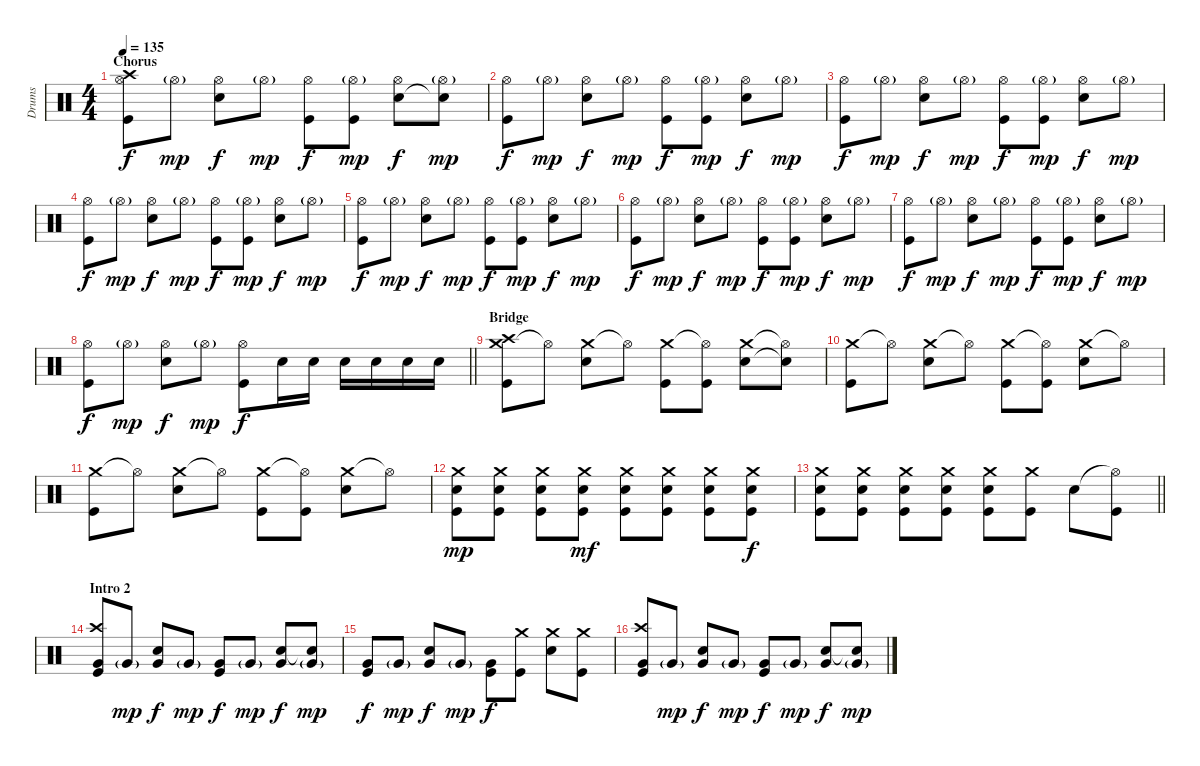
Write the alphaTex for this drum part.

\track ("Drums" "Drums") {instrument percussion}
\staff {score}
\articulation defaults
\ts (4 4)
\section ("" "Chorus")
\tempo 135
\clef neutral
\ks c
("Hi-Hat (open)" "Kick (hit)" "Crash high (hit)").8{dy f} "Hi-Hat (open)"{g}.8{dy mp} ("Hi-Hat (open)" "Electric Snare (hit)").8{dy f} "Hi-Hat (open)"{g}.8{dy mp} ("Hi-Hat (open)" "Kick (hit)").8{dy f} ("Hi-Hat (open)"{g} "Kick (hit)").8{dy mp} ("Hi-Hat (open)" "Electric Snare (hit)").8{dy f} ("Hi-Hat (open)"{g} "Snare (hit)"{t}).8{dy mp} |
("Hi-Hat (open)" "Kick (hit)").8{dy f} "Hi-Hat (open)"{g}.8{dy mp} ("Hi-Hat (open)" "Electric Snare (hit)").8{dy f} "Hi-Hat (open)"{g}.8{dy mp} ("Hi-Hat (open)" "Kick (hit)").8{dy f} ("Hi-Hat (open)"{g} "Kick (hit)").8{dy mp} ("Hi-Hat (open)" "Electric Snare (hit)").8{dy f} "Hi-Hat (open)"{g}.8{dy mp} |
("Hi-Hat (open)" "Kick (hit)").8{dy f} "Hi-Hat (open)"{g}.8{dy mp} ("Hi-Hat (open)" "Electric Snare (hit)").8{dy f} "Hi-Hat (open)"{g}.8{dy mp} ("Hi-Hat (open)" "Kick (hit)").8{dy f} ("Hi-Hat (open)"{g} "Kick (hit)").8{dy mp} ("Hi-Hat (open)" "Electric Snare (hit)").8{dy f} "Hi-Hat (open)"{g}.8{dy mp} |
("Hi-Hat (open)" "Kick (hit)").8{dy f} "Hi-Hat (open)"{g}.8{dy mp} ("Hi-Hat (open)" "Electric Snare (hit)").8{dy f} "Hi-Hat (open)"{g}.8{dy mp} ("Hi-Hat (open)" "Kick (hit)").8{dy f} ("Hi-Hat (open)"{g} "Kick (hit)").8{dy mp} ("Hi-Hat (open)" "Electric Snare (hit)").8{dy f} "Hi-Hat (open)"{g}.8{dy mp} |
("Hi-Hat (open)" "Kick (hit)").8{dy f} "Hi-Hat (open)"{g}.8{dy mp} ("Hi-Hat (open)" "Electric Snare (hit)").8{dy f} "Hi-Hat (open)"{g}.8{dy mp} ("Hi-Hat (open)" "Kick (hit)").8{dy f} ("Hi-Hat (open)"{g} "Kick (hit)").8{dy mp} ("Hi-Hat (open)" "Electric Snare (hit)").8{dy f} "Hi-Hat (open)"{g}.8{dy mp} |
("Hi-Hat (open)" "Kick (hit)").8{dy f} "Hi-Hat (open)"{g}.8{dy mp} ("Hi-Hat (open)" "Electric Snare (hit)").8{dy f} "Hi-Hat (open)"{g}.8{dy mp} ("Hi-Hat (open)" "Kick (hit)").8{dy f} ("Hi-Hat (open)"{g} "Kick (hit)").8{dy mp} ("Hi-Hat (open)" "Electric Snare (hit)").8{dy f} "Hi-Hat (open)"{g}.8{dy mp} |
("Hi-Hat (open)" "Kick (hit)").8{dy f} "Hi-Hat (open)"{g}.8{dy mp} ("Hi-Hat (open)" "Electric Snare (hit)").8{dy f} "Hi-Hat (open)"{g}.8{dy mp} ("Hi-Hat (open)" "Kick (hit)").8{dy f} ("Hi-Hat (open)"{g} "Kick (hit)").8{dy mp} ("Hi-Hat (open)" "Electric Snare (hit)").8{dy f} "Hi-Hat (open)"{g}.8{dy mp} |
\barLineRight lightlight
("Hi-Hat (open)" "Kick (hit)").8{dy f} "Hi-Hat (open)"{g}.8{dy mp} ("Hi-Hat (open)" "Electric Snare (hit)").8{dy f} "Hi-Hat (open)"{g}.8{dy mp} ("Hi-Hat (open)" "Kick (hit)").8{dy f} "Electric Snare (hit)".16 "Electric Snare (hit)".16 "Electric Snare (hit)".16 "Electric Snare (hit)".16 "Electric Snare (hit)".16 "Electric Snare (hit)".16 |
\section ("" "Bridge")
("Crash medium (hit)" "Kick (hit)" "Crash high (hit)").8 "Hi-Hat (open)"{t}.8 ("Crash medium (hit)" "Electric Snare (hit)").8 "Hi-Hat (open)"{t}.8 ("Crash medium (hit)" "Kick (hit)").8 ("Hi-Hat (open)"{t} "Kick (hit)").8 ("Crash medium (hit)" "Electric Snare (hit)").8 ("Hi-Hat (open)"{t} "Snare (hit)"{t}).8 |
("Crash medium (hit)" "Kick (hit)").8 "Hi-Hat (open)"{t}.8 ("Crash medium (hit)" "Electric Snare (hit)").8 "Hi-Hat (open)"{t}.8 ("Crash medium (hit)" "Kick (hit)").8 ("Hi-Hat (open)"{t} "Kick (hit)").8 ("Crash medium (hit)" "Electric Snare (hit)").8 "Hi-Hat (open)"{t}.8 |
("Crash medium (hit)" "Kick (hit)").8 "Hi-Hat (open)"{t}.8 ("Crash medium (hit)" "Electric Snare (hit)").8 "Hi-Hat (open)"{t}.8 ("Crash medium (hit)" "Kick (hit)").8 ("Hi-Hat (open)"{t} "Kick (hit)").8 ("Crash medium (hit)" "Electric Snare (hit)").8 "Hi-Hat (open)"{t}.8 |
("Crash medium (hit)" "Electric Snare (hit)" "Kick (hit)").8{dy mp} ("Crash medium (hit)" "Electric Snare (hit)" "Kick (hit)").8 ("Crash medium (hit)" "Electric Snare (hit)" "Kick (hit)").8 ("Crash medium (hit)" "Electric Snare (hit)" "Kick (hit)").8{dy mf} ("Crash medium (hit)" "Electric Snare (hit)" "Kick (hit)").8 ("Crash medium (hit)" "Electric Snare (hit)" "Kick (hit)").8 ("Crash medium (hit)" "Electric Snare (hit)" "Kick (hit)").8 ("Crash medium (hit)" "Electric Snare (hit)" "Kick (hit)").8{dy f} |
\barLineRight lightlight
("Crash medium (hit)" "Electric Snare (hit)" "Kick (hit)").8 ("Crash medium (hit)" "Electric Snare (hit)" "Kick (hit)").8 ("Crash medium (hit)" "Electric Snare (hit)" "Kick (hit)").8 ("Crash medium (hit)" "Electric Snare (hit)" "Kick (hit)").8 ("Crash medium (hit)" "Electric Snare (hit)" "Kick (hit)").8 ("Crash medium (hit)" "Kick (hit)").8 "Electric Snare (hit)".8 ("Hi-Hat (open)"{t} "Kick (hit)").8 |
\section ("" "Intro 2")
("Very Low Tom (hit)" "Kick (hit)" "Crash high (hit)").8 "Very Low Tom (hit)"{g}.8{dy mp} ("Very Low Tom (hit)" "Electric Snare (hit)").8{dy f} "Very Low Tom (hit)"{g}.8{dy mp} ("Very Low Tom (hit)" "Kick (hit)").8{dy f} "Very Low Tom (hit)"{g}.8{dy mp} ("Very Low Tom (hit)" "Electric Snare (hit)").8{dy f} ("Very Low Tom (hit)"{g} "Snare (hit)"{t}).8{dy mp} |
("Very Low Tom (hit)" "Kick (hit)").8{dy f} "Very Low Tom (hit)"{g}.8{dy mp} ("Very Low Tom (hit)" "Electric Snare (hit)").8{dy f} "Very Low Tom (hit)"{g}.8{dy mp} ("Very Low Tom (hit)" "Kick (hit)").8{dy f} ("Kick (hit)" "Crash medium (hit)").8 ("Electric Snare (hit)" "Crash medium (hit)").8 ("Kick (hit)" "Crash medium (hit)").8 |
("Very Low Tom (hit)" "Kick (hit)" "Crash high (hit)").8 "Very Low Tom (hit)"{g}.8{dy mp} ("Very Low Tom (hit)" "Electric Snare (hit)").8{dy f} "Very Low Tom (hit)"{g}.8{dy mp} ("Very Low Tom (hit)" "Kick (hit)").8{dy f} "Very Low Tom (hit)"{g}.8{dy mp} ("Very Low Tom (hit)" "Electric Snare (hit)").8{dy f} ("Very Low Tom (hit)"{g} "Snare (hit)"{t}).8{dy mp}
